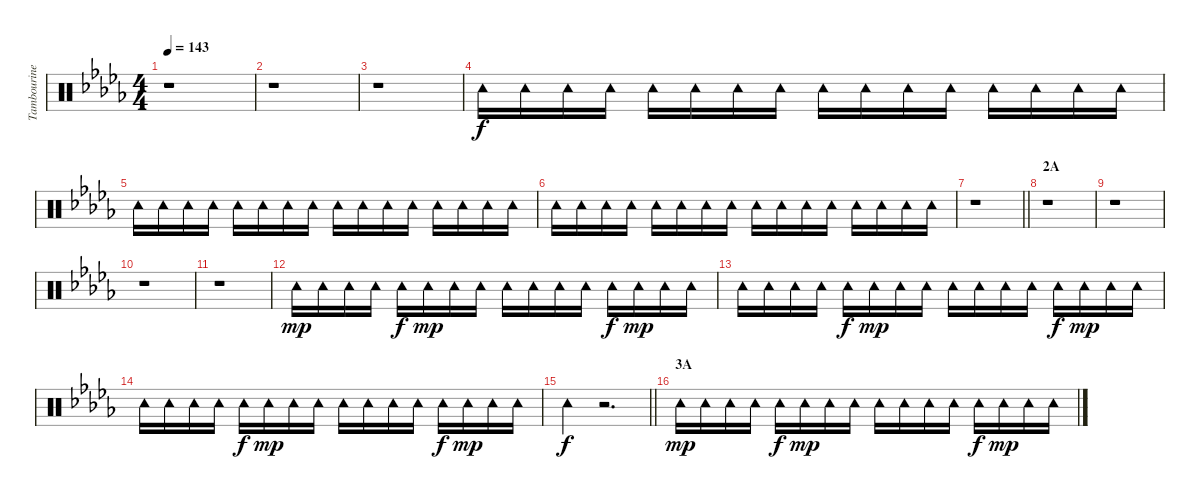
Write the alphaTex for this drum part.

\track ("Tambourine" "Tambourine") {instrument percussion}
\staff {score}
\articulation defaults
\ts (4 4)
\tempo 143
\clef neutral
\ks db
r.1{dy f} |
r.1 |
r.1 |
"Tambourine (hit)".16 "Tambourine (hit)".16 "Tambourine (hit)".16 "Tambourine (hit)".16 "Tambourine (hit)".16 "Tambourine (hit)".16 "Tambourine (hit)".16 "Tambourine (hit)".16 "Tambourine (hit)".16 "Tambourine (hit)".16 "Tambourine (hit)".16 "Tambourine (hit)".16 "Tambourine (hit)".16 "Tambourine (hit)".16 "Tambourine (hit)".16 "Tambourine (hit)".16 |
"Tambourine (hit)".16 "Tambourine (hit)".16 "Tambourine (hit)".16 "Tambourine (hit)".16 "Tambourine (hit)".16 "Tambourine (hit)".16 "Tambourine (hit)".16 "Tambourine (hit)".16 "Tambourine (hit)".16 "Tambourine (hit)".16 "Tambourine (hit)".16 "Tambourine (hit)".16 "Tambourine (hit)".16 "Tambourine (hit)".16 "Tambourine (hit)".16 "Tambourine (hit)".16 |
"Tambourine (hit)".16 "Tambourine (hit)".16 "Tambourine (hit)".16 "Tambourine (hit)".16 "Tambourine (hit)".16 "Tambourine (hit)".16 "Tambourine (hit)".16 "Tambourine (hit)".16 "Tambourine (hit)".16 "Tambourine (hit)".16 "Tambourine (hit)".16 "Tambourine (hit)".16 "Tambourine (hit)".16 "Tambourine (hit)".16 "Tambourine (hit)".16 "Tambourine (hit)".16 |
\barLineRight lightlight
r.1 |
\section ("" "2A")
r.1 |
r.1 |
r.1 |
r.1 |
"Tambourine (hit)".16{dy mp} "Tambourine (hit)".16 "Tambourine (hit)".16 "Tambourine (hit)".16 "Tambourine (hit)".16{dy f} "Tambourine (hit)".16{dy mp} "Tambourine (hit)".16 "Tambourine (hit)".16 "Tambourine (hit)".16 "Tambourine (hit)".16 "Tambourine (hit)".16 "Tambourine (hit)".16 "Tambourine (hit)".16{dy f} "Tambourine (hit)".16{dy mp} "Tambourine (hit)".16 "Tambourine (hit)".16 |
"Tambourine (hit)".16 "Tambourine (hit)".16 "Tambourine (hit)".16 "Tambourine (hit)".16 "Tambourine (hit)".16{dy f} "Tambourine (hit)".16{dy mp} "Tambourine (hit)".16 "Tambourine (hit)".16 "Tambourine (hit)".16 "Tambourine (hit)".16 "Tambourine (hit)".16 "Tambourine (hit)".16 "Tambourine (hit)".16{dy f} "Tambourine (hit)".16{dy mp} "Tambourine (hit)".16 "Tambourine (hit)".16 |
"Tambourine (hit)".16 "Tambourine (hit)".16 "Tambourine (hit)".16 "Tambourine (hit)".16 "Tambourine (hit)".16{dy f} "Tambourine (hit)".16{dy mp} "Tambourine (hit)".16 "Tambourine (hit)".16 "Tambourine (hit)".16 "Tambourine (hit)".16 "Tambourine (hit)".16 "Tambourine (hit)".16 "Tambourine (hit)".16{dy f} "Tambourine (hit)".16{dy mp} "Tambourine (hit)".16 "Tambourine (hit)".16 |
\barLineRight lightlight "Tambourine (hit)".4{dy f}
r.2{d} |
\section ("" "3A")
"Tambourine (hit)".16{dy mp} "Tambourine (hit)".16 "Tambourine (hit)".16 "Tambourine (hit)".16 "Tambourine (hit)".16{dy f} "Tambourine (hit)".16{dy mp} "Tambourine (hit)".16 "Tambourine (hit)".16 "Tambourine (hit)".16 "Tambourine (hit)".16 "Tambourine (hit)".16 "Tambourine (hit)".16 "Tambourine (hit)".16{dy f} "Tambourine (hit)".16{dy mp} "Tambourine (hit)".16 "Tambourine (hit)".16
